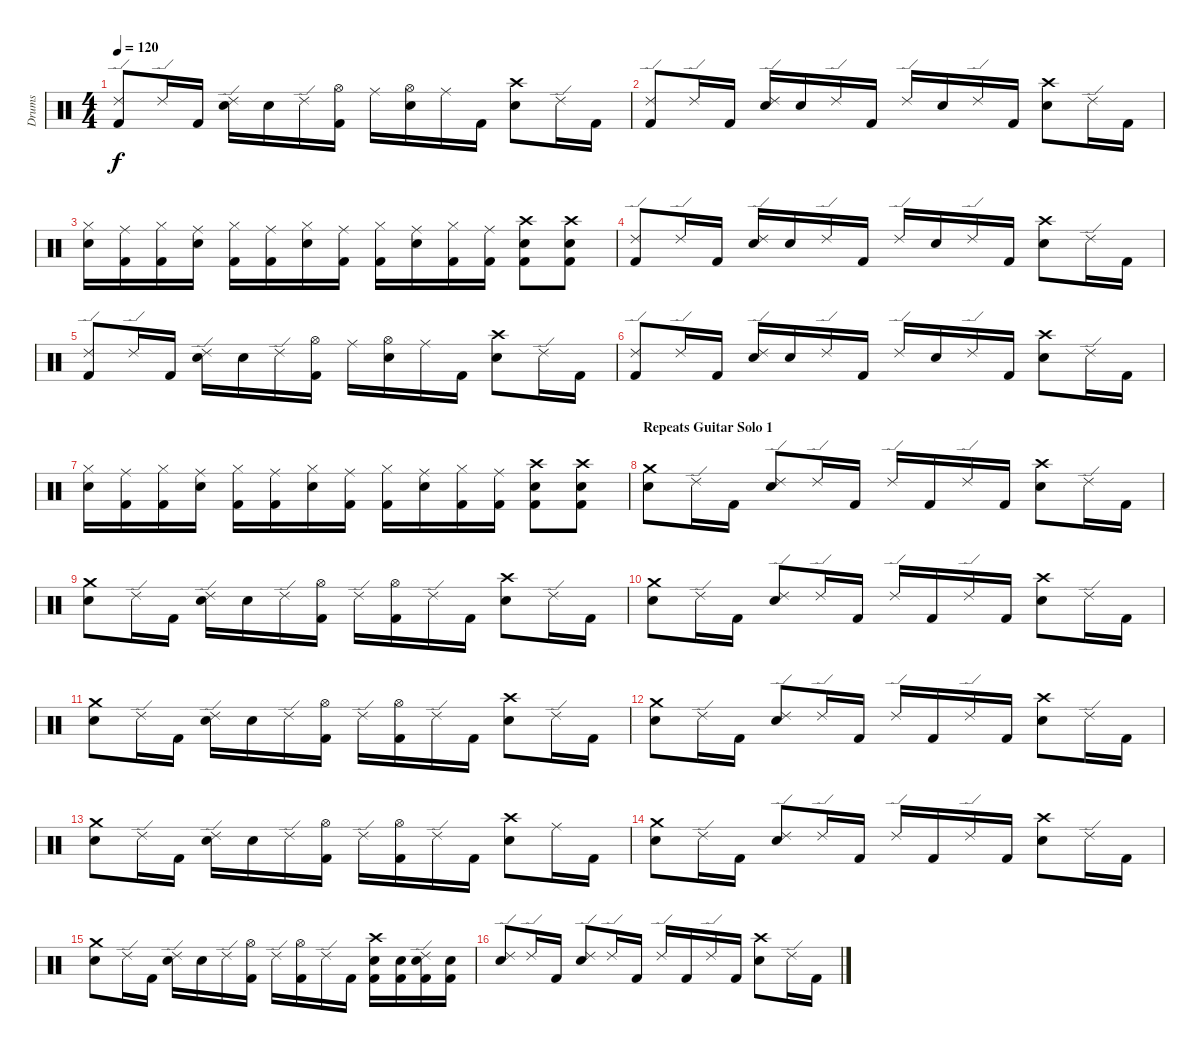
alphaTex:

\track ("Drums" "Drums") {instrument percussion}
\staff {score}
\articulation defaults
\ts (4 4)
\tempo 120
\clef neutral
\ks c
("Ride (edge) 2" "Kick (hit) 2").8{dy f} "Ride (edge) 2".16 "Kick (hit) 2".16 ("Ride (edge) 2" "Electric Snare (hit)").16 "Electric Snare (hit)".16 "Ride (edge) 2".16 ("Hi-Hat (open)" "Kick (hit) 2").16 "Ride (middle)".16 ("Hi-Hat (open)" "Electric Snare (hit)").16 "Ride (middle)".16 "Kick (hit) 2".16 ("Crash high (hit)" "Electric Snare (hit)").8 "Ride (edge) 2".16 "Kick (hit) 2".16 |
("Ride (edge) 2" "Kick (hit) 2").8 "Ride (edge) 2".16 "Kick (hit) 2".16 ("Ride (edge) 2" "Electric Snare (hit)").16 "Electric Snare (hit)".16 "Ride (edge) 2".16 "Kick (hit) 2".16 "Ride (edge) 2".16 "Electric Snare (hit)".16 "Ride (edge) 2".16 "Kick (hit) 2".16 ("Crash high (hit)" "Electric Snare (hit)").8 "Ride (edge) 2".16 "Kick (hit) 2".16 |
("Hi-Hat (closed)" "Electric Snare (hit)").16 ("Ride (middle)" "Kick (hit) 2").16 ("Hi-Hat (closed)" "Kick (hit) 2").16 ("Ride (middle)" "Electric Snare (hit)").16 ("Hi-Hat (closed)" "Kick (hit) 2").16 ("Ride (middle)" "Kick (hit) 2").16 ("Hi-Hat (closed)" "Electric Snare (hit)").16 ("Ride (middle)" "Kick (hit) 2").16 ("Hi-Hat (closed)" "Kick (hit) 2").16 ("Ride (middle)" "Electric Snare (hit)").16 ("Hi-Hat (closed)" "Kick (hit) 2").16 ("Ride (middle)" "Kick (hit) 2").16 ("Crash high (hit)" "Electric Snare (hit)" "Kick (hit) 2").8 ("Crash high (hit)" "Electric Snare (hit)" "Kick (hit) 2").8 |
("Ride (edge) 2" "Kick (hit) 2").8 "Ride (edge) 2".16 "Kick (hit) 2".16 ("Ride (edge) 2" "Electric Snare (hit)").16 "Electric Snare (hit)".16 "Ride (edge) 2".16 "Kick (hit) 2".16 "Ride (edge) 2".16 "Electric Snare (hit)".16 "Ride (edge) 2".16 "Kick (hit) 2".16 ("Crash high (hit)" "Electric Snare (hit)").8 "Ride (edge) 2".16 "Kick (hit) 2".16 |
("Ride (edge) 2" "Kick (hit) 2").8 "Ride (edge) 2".16 "Kick (hit) 2".16 ("Ride (edge) 2" "Electric Snare (hit)").16 "Electric Snare (hit)".16 "Ride (edge) 2".16 ("Hi-Hat (open)" "Kick (hit) 2").16 "Ride (middle)".16 ("Hi-Hat (open)" "Electric Snare (hit)").16 "Ride (middle)".16 "Kick (hit) 2".16 ("Crash high (hit)" "Electric Snare (hit)").8 "Ride (edge) 2".16 "Kick (hit) 2".16 |
("Ride (edge) 2" "Kick (hit) 2").8 "Ride (edge) 2".16 "Kick (hit) 2".16 ("Ride (edge) 2" "Electric Snare (hit)").16 "Electric Snare (hit)".16 "Ride (edge) 2".16 "Kick (hit) 2".16 "Ride (edge) 2".16 "Electric Snare (hit)".16 "Ride (edge) 2".16 "Kick (hit) 2".16 ("Crash high (hit)" "Electric Snare (hit)").8 "Ride (edge) 2".16 "Kick (hit) 2".16 |
("Hi-Hat (closed)" "Electric Snare (hit)").16 ("Ride (middle)" "Kick (hit) 2").16 ("Hi-Hat (closed)" "Kick (hit) 2").16 ("Ride (middle)" "Electric Snare (hit)").16 ("Hi-Hat (closed)" "Kick (hit) 2").16 ("Ride (middle)" "Kick (hit) 2").16 ("Hi-Hat (closed)" "Electric Snare (hit)").16 ("Ride (middle)" "Kick (hit) 2").16 ("Hi-Hat (closed)" "Kick (hit) 2").16 ("Ride (middle)" "Electric Snare (hit)").16 ("Hi-Hat (closed)" "Kick (hit) 2").16 ("Ride (middle)" "Kick (hit) 2").16 ("Crash high (hit)" "Electric Snare (hit)" "Kick (hit) 2").8 ("Crash high (hit)" "Electric Snare (hit)" "Kick (hit) 2").8 |
\section ("" "Repeats Guitar Solo 1")
("Crash medium (hit)" "Electric Snare (hit)").8 "Ride (edge) 2".16 "Kick (hit) 2".16 ("Ride (edge) 2" "Electric Snare (hit)").8 "Ride (edge) 2".16 "Kick (hit) 2".16 "Ride (edge) 2".16 "Kick (hit) 2".16 "Ride (edge) 2".16 "Kick (hit) 2".16 ("Crash high (hit)" "Electric Snare (hit)").8 "Ride (edge) 2".16 "Kick (hit) 2".16 |
("Crash medium (hit)" "Electric Snare (hit)").8 "Ride (edge) 2".16 "Kick (hit) 2".16 ("Ride (edge) 2" "Electric Snare (hit)").16 "Electric Snare (hit)".16 "Ride (edge) 2".16 ("Hi-Hat (open)" "Kick (hit) 2").16 "Ride (edge) 2".16 ("Hi-Hat (open)" "Kick (hit) 2").16 "Ride (edge) 2".16 "Kick (hit) 2".16 ("Crash high (hit)" "Electric Snare (hit)").8 "Ride (edge) 2".16 "Kick (hit) 2".16 |
("Crash medium (hit)" "Electric Snare (hit)").8 "Ride (edge) 2".16 "Kick (hit) 2".16 ("Ride (edge) 2" "Electric Snare (hit)").8 "Ride (edge) 2".16 "Kick (hit) 2".16 "Ride (edge) 2".16 "Kick (hit) 2".16 "Ride (edge) 2".16 "Kick (hit) 2".16 ("Crash high (hit)" "Electric Snare (hit)").8 "Ride (edge) 2".16 "Kick (hit) 2".16 |
("Crash medium (hit)" "Electric Snare (hit)").8 "Ride (edge) 2".16 "Kick (hit) 2".16 ("Ride (edge) 2" "Electric Snare (hit)").16 "Electric Snare (hit)".16 "Ride (edge) 2".16 ("Hi-Hat (open)" "Kick (hit) 2").16 "Ride (edge) 2".16 ("Hi-Hat (open)" "Kick (hit) 2").16 "Ride (edge) 2".16 "Kick (hit) 2".16 ("Crash high (hit)" "Electric Snare (hit)").8 "Ride (edge) 2".16 "Kick (hit) 2".16 |
("Crash medium (hit)" "Electric Snare (hit)").8 "Ride (edge) 2".16 "Kick (hit) 2".16 ("Ride (edge) 2" "Electric Snare (hit)").8 "Ride (edge) 2".16 "Kick (hit) 2".16 "Ride (edge) 2".16 "Kick (hit) 2".16 "Ride (edge) 2".16 "Kick (hit) 2".16 ("Crash high (hit)" "Electric Snare (hit)").8 "Ride (edge) 2".16 "Kick (hit) 2".16 |
("Crash medium (hit)" "Electric Snare (hit)").8 "Ride (edge) 2".16 "Kick (hit) 2".16 ("Ride (edge) 2" "Electric Snare (hit)").16 "Electric Snare (hit)".16 "Ride (edge) 2".16 ("Hi-Hat (open)" "Kick (hit) 2").16 "Ride (edge) 2".16 ("Hi-Hat (open)" "Kick (hit) 2").16 "Ride (edge) 2".16 "Kick (hit) 2".16 ("Crash high (hit)" "Electric Snare (hit)").8 "Ride (middle)".16 "Kick (hit) 2".16 |
("Crash medium (hit)" "Electric Snare (hit)").8 "Ride (edge) 2".16 "Kick (hit) 2".16 ("Ride (edge) 2" "Electric Snare (hit)").8 "Ride (edge) 2".16 "Kick (hit) 2".16 "Ride (edge) 2".16 "Kick (hit) 2".16 "Ride (edge) 2".16 "Kick (hit) 2".16 ("Crash high (hit)" "Electric Snare (hit)").8 "Ride (edge) 2".16 "Kick (hit) 2".16 |
("Crash medium (hit)" "Electric Snare (hit)").8 "Ride (edge) 2".16 "Kick (hit) 2".16 ("Ride (edge) 2" "Electric Snare (hit)").16 "Electric Snare (hit)".16 "Ride (edge) 2".16 ("Hi-Hat (open)" "Kick (hit) 2").16 "Ride (edge) 2".16 ("Hi-Hat (open)" "Kick (hit) 2").16 "Ride (edge) 2".16 "Kick (hit) 2".16 ("Crash high (hit)" "Electric Snare (hit)" "Kick (hit) 2").16 ("Electric Snare (hit)" "Kick (hit) 2").16 ("Ride (edge) 2" "Electric Snare (hit)" "Kick (hit) 2").16 ("Electric Snare (hit)" "Kick (hit) 2").16 |
("Ride (edge) 2" "Electric Snare (hit)").8 "Ride (edge) 2".16 "Kick (hit) 2".16 ("Ride (edge) 2" "Electric Snare (hit)").8 "Ride (edge) 2".16 "Kick (hit) 2".16 "Ride (edge) 2".16 "Kick (hit) 2".16 "Ride (edge) 2".16 "Kick (hit) 2".16 ("Crash high (hit)" "Electric Snare (hit)").8 "Ride (edge) 2".16 "Kick (hit) 2".16
